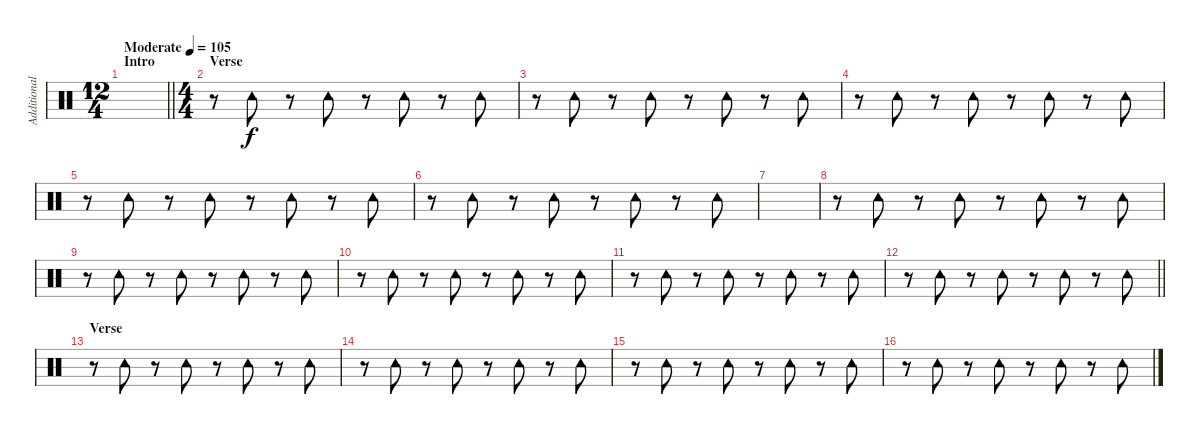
\track ("Additional percussion" "Additional") {instrument percussion}
\staff {score}
\articulation defaults
\ts (12 4)
\section ("" "Intro")
\tempo (105 "Moderate")
\clef neutral
\barLineRight lightlight
\ks c
|
\ts (4 4)
\section ("" "Verse")
r.8 "Tambourine (hit)".8 r.8 "Tambourine (hit)".8 r.8 "Tambourine (hit)".8 r.8 "Tambourine (hit)".8 |
r.8 "Tambourine (hit)".8 r.8 "Tambourine (hit)".8 r.8 "Tambourine (hit)".8 r.8 "Tambourine (hit)".8 |
r.8 "Tambourine (hit)".8 r.8 "Tambourine (hit)".8 r.8 "Tambourine (hit)".8 r.8 "Tambourine (hit)".8 |
r.8 "Tambourine (hit)".8 r.8 "Tambourine (hit)".8 r.8 "Tambourine (hit)".8 r.8 "Tambourine (hit)".8 |
r.8 "Tambourine (hit)".8 r.8 "Tambourine (hit)".8 r.8 "Tambourine (hit)".8 r.8 "Tambourine (hit)".8 |
|
r.8 "Tambourine (hit)".8 r.8 "Tambourine (hit)".8 r.8 "Tambourine (hit)".8 r.8 "Tambourine (hit)".8 |
r.8 "Tambourine (hit)".8 r.8 "Tambourine (hit)".8 r.8 "Tambourine (hit)".8 r.8 "Tambourine (hit)".8 |
r.8 "Tambourine (hit)".8 r.8 "Tambourine (hit)".8 r.8 "Tambourine (hit)".8 r.8 "Tambourine (hit)".8 |
r.8 "Tambourine (hit)".8 r.8 "Tambourine (hit)".8 r.8 "Tambourine (hit)".8 r.8 "Tambourine (hit)".8 |
\barLineRight lightlight
r.8 "Tambourine (hit)".8 r.8 "Tambourine (hit)".8 r.8 "Tambourine (hit)".8 r.8 "Tambourine (hit)".8 |
\section ("" "Verse")
r.8 "Tambourine (hit)".8 r.8 "Tambourine (hit)".8 r.8 "Tambourine (hit)".8 r.8 "Tambourine (hit)".8 |
r.8 "Tambourine (hit)".8 r.8 "Tambourine (hit)".8 r.8 "Tambourine (hit)".8 r.8 "Tambourine (hit)".8 |
r.8 "Tambourine (hit)".8 r.8 "Tambourine (hit)".8 r.8 "Tambourine (hit)".8 r.8 "Tambourine (hit)".8 |
r.8 "Tambourine (hit)".8 r.8 "Tambourine (hit)".8 r.8 "Tambourine (hit)".8 r.8 "Tambourine (hit)".8
